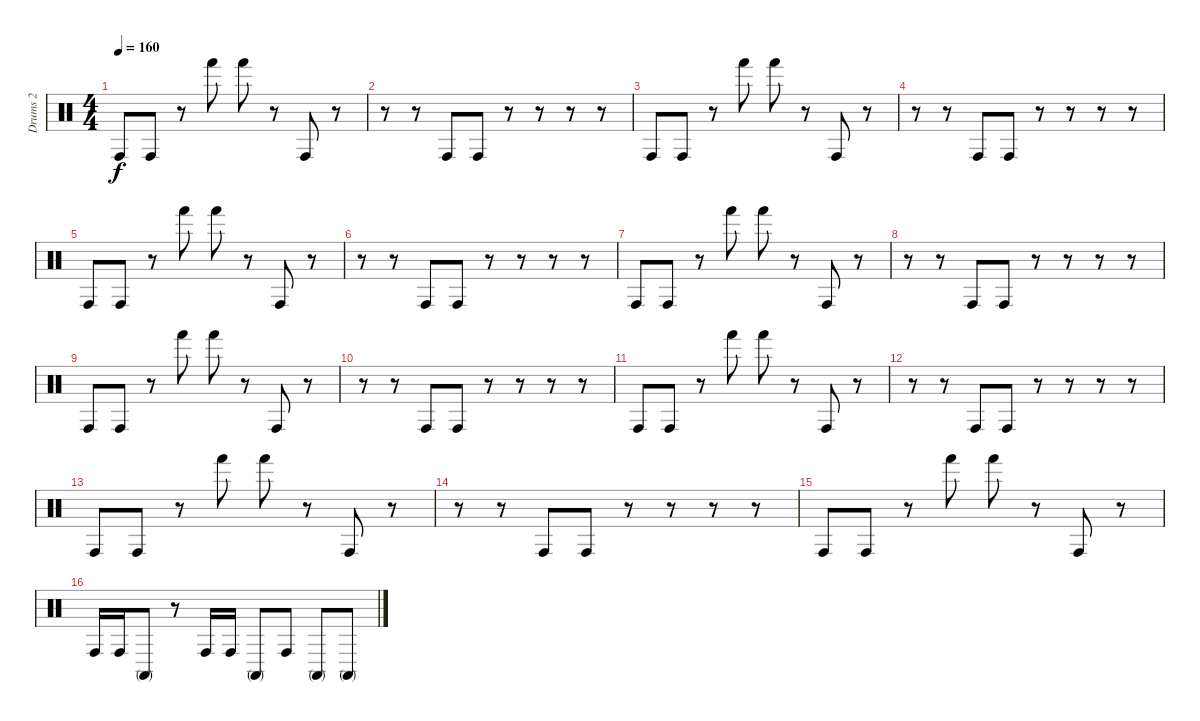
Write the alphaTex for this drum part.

\track ("Drums 2" "Drums 2") {instrument percussion}
\staff {score}
\articulation defaults
\ts (4 4)
\tempo 160
\clef neutral
\ks c "Conga high (hit)".8{dy f} "Conga high (hit)".8
r.8 "Hand (hit)".8 "Hand (hit)".8 r.8 "Conga high (hit)".8 r.8 |
r.8 r.8 "Conga high (hit)".8 "Conga high (hit)".8 r.8 r.8 r.8 r.8 |
"Conga high (hit)".8 "Conga high (hit)".8 r.8 "Hand (hit)".8 "Hand (hit)".8 r.8 "Conga high (hit)".8 r.8 |
r.8 r.8 "Conga high (hit)".8 "Conga high (hit)".8 r.8 r.8 r.8 r.8 |
"Conga high (hit)".8 "Conga high (hit)".8 r.8 "Hand (hit)".8 "Hand (hit)".8 r.8 "Conga high (hit)".8 r.8 |
r.8 r.8 "Conga high (hit)".8 "Conga high (hit)".8 r.8 r.8 r.8 r.8 |
"Conga high (hit)".8 "Conga high (hit)".8 r.8 "Hand (hit)".8 "Hand (hit)".8 r.8 "Conga high (hit)".8 r.8 |
r.8 r.8 "Conga high (hit)".8 "Conga high (hit)".8 r.8 r.8 r.8 r.8 |
"Conga high (hit)".8 "Conga high (hit)".8 r.8 "Hand (hit)".8 "Hand (hit)".8 r.8 "Conga high (hit)".8 r.8 |
r.8 r.8 "Conga high (hit)".8 "Conga high (hit)".8 r.8 r.8 r.8 r.8 |
"Conga high (hit)".8 "Conga high (hit)".8 r.8 "Hand (hit)".8 "Hand (hit)".8 r.8 "Conga high (hit)".8 r.8 |
r.8 r.8 "Conga high (hit)".8 "Conga high (hit)".8 r.8 r.8 r.8 r.8 |
"Conga high (hit)".8 "Conga high (hit)".8 r.8 "Hand (hit)".8 "Hand (hit)".8 r.8 "Conga high (hit)".8 r.8 |
r.8 r.8 "Conga high (hit)".8 "Conga high (hit)".8 r.8 r.8 r.8 r.8 |
"Conga high (hit)".8 "Conga high (hit)".8 r.8 "Hand (hit)".8 "Hand (hit)".8 r.8 "Conga high (hit)".8 r.8 |
"Conga high (hit)".16 "Conga high (hit)".16 "Conga high (mute)".8 r.8 "Conga high (hit)".16 "Conga high (hit)".16 "Conga high (mute)".8 "Conga high (hit)".8 "Conga high (mute)".8 "Conga high (mute)".8
